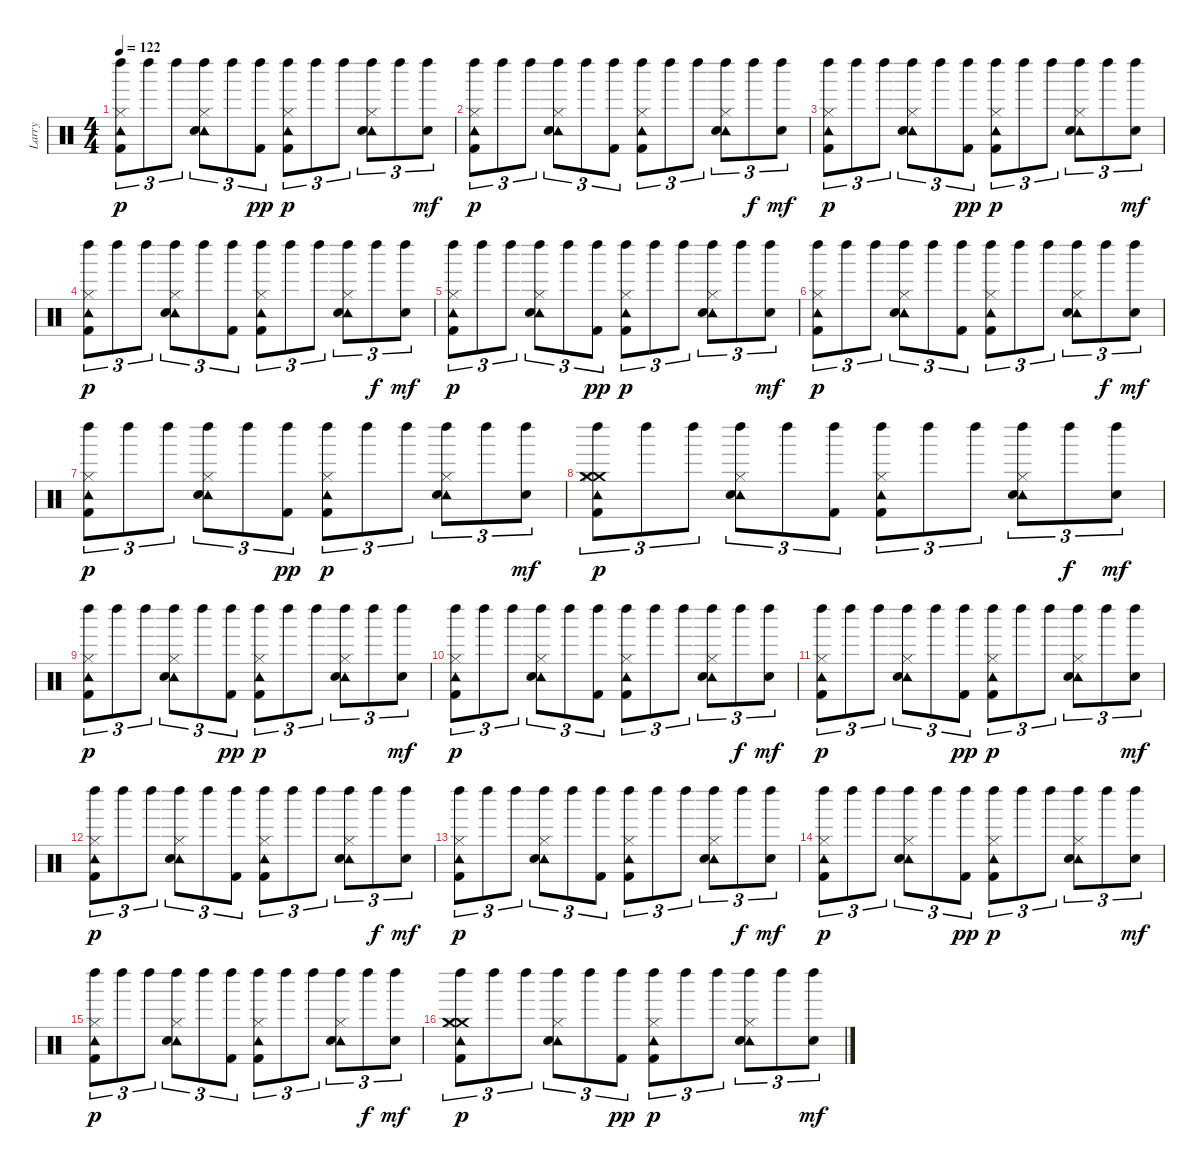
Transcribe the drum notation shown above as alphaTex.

\track ("Larry" "Larry") {instrument percussion}
\staff {score}
\articulation defaults
\ts (4 4)
\tempo 122
\clef neutral
\ks c
("Left Maraca (hit)" "Tambourine (hit)" "Hi-Hat (closed)" "Kick (hit) 2").8{tu (3 2) dy p} "Left Maraca (hit)".8{tu (3 2)} "Left Maraca (hit)".8{tu (3 2)} ("Left Maraca (hit)" "Tambourine (hit)" "Hi-Hat (closed)" "Snare (hit) 2").8{tu (3 2)} "Left Maraca (hit)".8{tu (3 2)} ("Left Maraca (hit)" "Kick (hit) 2").8{tu (3 2) dy pp} ("Left Maraca (hit)" "Tambourine (hit)" "Hi-Hat (closed)" "Kick (hit) 2").8{tu (3 2) dy p} "Left Maraca (hit)".8{tu (3 2)} "Left Maraca (hit)".8{tu (3 2)} ("Left Maraca (hit)" "Tambourine (hit)" "Hi-Hat (closed)" "Snare (hit) 2").8{tu (3 2)} "Left Maraca (hit)".8{tu (3 2)} ("Left Maraca (hit)" "Snare (hit) 2").8{tu (3 2) dy mf} |
("Left Maraca (hit)" "Tambourine (hit)" "Hi-Hat (closed)" "Kick (hit) 2").8{tu (3 2) dy p} "Left Maraca (hit)".8{tu (3 2)} "Left Maraca (hit)".8{tu (3 2)} ("Left Maraca (hit)" "Tambourine (hit)" "Hi-Hat (closed)" "Snare (hit) 2").8{tu (3 2)} "Left Maraca (hit)".8{tu (3 2)} ("Left Maraca (hit)" "Kick (hit) 2").8{tu (3 2)} ("Left Maraca (hit)" "Tambourine (hit)" "Hi-Hat (closed)" "Kick (hit) 2").8{tu (3 2)} "Left Maraca (hit)".8{tu (3 2)} "Left Maraca (hit)".8{tu (3 2)} ("Left Maraca (hit)" "Tambourine (hit)" "Hi-Hat (closed)" "Snare (hit) 2").8{tu (3 2)} "Left Maraca (hit)".8{tu (3 2) dy f} ("Left Maraca (hit)" "Snare (hit) 2").8{tu (3 2) dy mf} |
("Left Maraca (hit)" "Tambourine (hit)" "Hi-Hat (closed)" "Kick (hit) 2").8{tu (3 2) dy p} "Left Maraca (hit)".8{tu (3 2)} "Left Maraca (hit)".8{tu (3 2)} ("Left Maraca (hit)" "Tambourine (hit)" "Hi-Hat (closed)" "Snare (hit) 2").8{tu (3 2)} "Left Maraca (hit)".8{tu (3 2)} ("Left Maraca (hit)" "Kick (hit) 2").8{tu (3 2) dy pp} ("Left Maraca (hit)" "Tambourine (hit)" "Hi-Hat (closed)" "Kick (hit) 2").8{tu (3 2) dy p} "Left Maraca (hit)".8{tu (3 2)} "Left Maraca (hit)".8{tu (3 2)} ("Left Maraca (hit)" "Tambourine (hit)" "Hi-Hat (closed)" "Snare (hit) 2").8{tu (3 2)} "Left Maraca (hit)".8{tu (3 2)} ("Left Maraca (hit)" "Snare (hit) 2").8{tu (3 2) dy mf} |
("Left Maraca (hit)" "Tambourine (hit)" "Hi-Hat (closed)" "Kick (hit) 2").8{tu (3 2) dy p} "Left Maraca (hit)".8{tu (3 2)} "Left Maraca (hit)".8{tu (3 2)} ("Left Maraca (hit)" "Tambourine (hit)" "Hi-Hat (closed)" "Snare (hit) 2").8{tu (3 2)} "Left Maraca (hit)".8{tu (3 2)} ("Left Maraca (hit)" "Kick (hit) 2").8{tu (3 2)} ("Left Maraca (hit)" "Tambourine (hit)" "Hi-Hat (closed)" "Kick (hit) 2").8{tu (3 2)} "Left Maraca (hit)".8{tu (3 2)} "Left Maraca (hit)".8{tu (3 2)} ("Left Maraca (hit)" "Tambourine (hit)" "Hi-Hat (closed)" "Snare (hit) 2").8{tu (3 2)} "Left Maraca (hit)".8{tu (3 2) dy f} ("Left Maraca (hit)" "Snare (hit) 2").8{tu (3 2) dy mf} |
("Left Maraca (hit)" "Tambourine (hit)" "Hi-Hat (closed)" "Kick (hit) 2").8{tu (3 2) dy p} "Left Maraca (hit)".8{tu (3 2)} "Left Maraca (hit)".8{tu (3 2)} ("Left Maraca (hit)" "Tambourine (hit)" "Hi-Hat (closed)" "Snare (hit) 2").8{tu (3 2)} "Left Maraca (hit)".8{tu (3 2)} ("Left Maraca (hit)" "Kick (hit) 2").8{tu (3 2) dy pp} ("Left Maraca (hit)" "Tambourine (hit)" "Hi-Hat (closed)" "Kick (hit) 2").8{tu (3 2) dy p} "Left Maraca (hit)".8{tu (3 2)} "Left Maraca (hit)".8{tu (3 2)} ("Left Maraca (hit)" "Tambourine (hit)" "Hi-Hat (closed)" "Snare (hit) 2").8{tu (3 2)} "Left Maraca (hit)".8{tu (3 2)} ("Left Maraca (hit)" "Snare (hit) 2").8{tu (3 2) dy mf} |
("Left Maraca (hit)" "Tambourine (hit)" "Hi-Hat (closed)" "Kick (hit) 2").8{tu (3 2) dy p} "Left Maraca (hit)".8{tu (3 2)} "Left Maraca (hit)".8{tu (3 2)} ("Left Maraca (hit)" "Tambourine (hit)" "Hi-Hat (closed)" "Snare (hit) 2").8{tu (3 2)} "Left Maraca (hit)".8{tu (3 2)} ("Left Maraca (hit)" "Kick (hit) 2").8{tu (3 2)} ("Left Maraca (hit)" "Tambourine (hit)" "Hi-Hat (closed)" "Kick (hit) 2").8{tu (3 2)} "Left Maraca (hit)".8{tu (3 2)} "Left Maraca (hit)".8{tu (3 2)} ("Left Maraca (hit)" "Tambourine (hit)" "Hi-Hat (closed)" "Snare (hit) 2").8{tu (3 2)} "Left Maraca (hit)".8{tu (3 2) dy f} ("Left Maraca (hit)" "Snare (hit) 2").8{tu (3 2) dy mf} |
("Left Maraca (hit)" "Tambourine (hit)" "Hi-Hat (closed)" "Kick (hit) 2").8{tu (3 2) dy p} "Left Maraca (hit)".8{tu (3 2)} "Left Maraca (hit)".8{tu (3 2)} ("Left Maraca (hit)" "Tambourine (hit)" "Hi-Hat (closed)" "Snare (hit) 2").8{tu (3 2)} "Left Maraca (hit)".8{tu (3 2)} ("Left Maraca (hit)" "Kick (hit) 2").8{tu (3 2) dy pp} ("Left Maraca (hit)" "Tambourine (hit)" "Hi-Hat (closed)" "Kick (hit) 2").8{tu (3 2) dy p} "Left Maraca (hit)".8{tu (3 2)} "Left Maraca (hit)".8{tu (3 2)} ("Left Maraca (hit)" "Tambourine (hit)" "Hi-Hat (closed)" "Snare (hit) 2").8{tu (3 2)} "Left Maraca (hit)".8{tu (3 2)} ("Left Maraca (hit)" "Snare (hit) 2").8{tu (3 2) dy mf} |
("Left Maraca (hit)" "Crash medium (hit)" "Tambourine (hit)" "Hi-Hat (closed)" "Crash medium (hit)" "Kick (hit) 2").8{tu (3 2) dy p} "Left Maraca (hit)".8{tu (3 2)} "Left Maraca (hit)".8{tu (3 2)} ("Left Maraca (hit)" "Tambourine (hit)" "Hi-Hat (closed)" "Snare (hit) 2").8{tu (3 2)} "Left Maraca (hit)".8{tu (3 2)} ("Left Maraca (hit)" "Kick (hit) 2").8{tu (3 2)} ("Left Maraca (hit)" "Tambourine (hit)" "Hi-Hat (closed)" "Kick (hit) 2").8{tu (3 2)} "Left Maraca (hit)".8{tu (3 2)} "Left Maraca (hit)".8{tu (3 2)} ("Left Maraca (hit)" "Tambourine (hit)" "Hi-Hat (closed)" "Snare (hit) 2").8{tu (3 2)} "Left Maraca (hit)".8{tu (3 2) dy f} ("Left Maraca (hit)" "Snare (hit) 2").8{tu (3 2) dy mf} |
("Left Maraca (hit)" "Tambourine (hit)" "Hi-Hat (closed)" "Kick (hit) 2").8{tu (3 2) dy p} "Left Maraca (hit)".8{tu (3 2)} "Left Maraca (hit)".8{tu (3 2)} ("Left Maraca (hit)" "Tambourine (hit)" "Hi-Hat (closed)" "Snare (hit) 2").8{tu (3 2)} "Left Maraca (hit)".8{tu (3 2)} ("Left Maraca (hit)" "Kick (hit) 2").8{tu (3 2) dy pp} ("Left Maraca (hit)" "Tambourine (hit)" "Hi-Hat (closed)" "Kick (hit) 2").8{tu (3 2) dy p} "Left Maraca (hit)".8{tu (3 2)} "Left Maraca (hit)".8{tu (3 2)} ("Left Maraca (hit)" "Tambourine (hit)" "Hi-Hat (closed)" "Snare (hit) 2").8{tu (3 2)} "Left Maraca (hit)".8{tu (3 2)} ("Left Maraca (hit)" "Snare (hit) 2").8{tu (3 2) dy mf} |
("Left Maraca (hit)" "Tambourine (hit)" "Hi-Hat (closed)" "Kick (hit) 2").8{tu (3 2) dy p} "Left Maraca (hit)".8{tu (3 2)} "Left Maraca (hit)".8{tu (3 2)} ("Left Maraca (hit)" "Tambourine (hit)" "Hi-Hat (closed)" "Snare (hit) 2").8{tu (3 2)} "Left Maraca (hit)".8{tu (3 2)} ("Left Maraca (hit)" "Kick (hit) 2").8{tu (3 2)} ("Left Maraca (hit)" "Tambourine (hit)" "Hi-Hat (closed)" "Kick (hit) 2").8{tu (3 2)} "Left Maraca (hit)".8{tu (3 2)} "Left Maraca (hit)".8{tu (3 2)} ("Left Maraca (hit)" "Tambourine (hit)" "Hi-Hat (closed)" "Snare (hit) 2").8{tu (3 2)} "Left Maraca (hit)".8{tu (3 2) dy f} ("Left Maraca (hit)" "Snare (hit) 2").8{tu (3 2) dy mf} |
("Left Maraca (hit)" "Tambourine (hit)" "Hi-Hat (closed)" "Kick (hit) 2").8{tu (3 2) dy p} "Left Maraca (hit)".8{tu (3 2)} "Left Maraca (hit)".8{tu (3 2)} ("Left Maraca (hit)" "Tambourine (hit)" "Hi-Hat (closed)" "Snare (hit) 2").8{tu (3 2)} "Left Maraca (hit)".8{tu (3 2)} ("Left Maraca (hit)" "Kick (hit) 2").8{tu (3 2) dy pp} ("Left Maraca (hit)" "Tambourine (hit)" "Hi-Hat (closed)" "Kick (hit) 2").8{tu (3 2) dy p} "Left Maraca (hit)".8{tu (3 2)} "Left Maraca (hit)".8{tu (3 2)} ("Left Maraca (hit)" "Tambourine (hit)" "Hi-Hat (closed)" "Snare (hit) 2").8{tu (3 2)} "Left Maraca (hit)".8{tu (3 2)} ("Left Maraca (hit)" "Snare (hit) 2").8{tu (3 2) dy mf} |
("Left Maraca (hit)" "Tambourine (hit)" "Hi-Hat (closed)" "Kick (hit) 2").8{tu (3 2) dy p} "Left Maraca (hit)".8{tu (3 2)} "Left Maraca (hit)".8{tu (3 2)} ("Left Maraca (hit)" "Tambourine (hit)" "Hi-Hat (closed)" "Snare (hit) 2").8{tu (3 2)} "Left Maraca (hit)".8{tu (3 2)} ("Left Maraca (hit)" "Kick (hit) 2").8{tu (3 2)} ("Left Maraca (hit)" "Tambourine (hit)" "Hi-Hat (closed)" "Kick (hit) 2").8{tu (3 2)} "Left Maraca (hit)".8{tu (3 2)} "Left Maraca (hit)".8{tu (3 2)} ("Left Maraca (hit)" "Tambourine (hit)" "Hi-Hat (closed)" "Snare (hit) 2").8{tu (3 2)} "Left Maraca (hit)".8{tu (3 2) dy f} ("Left Maraca (hit)" "Snare (hit) 2").8{tu (3 2) dy mf} |
("Left Maraca (hit)" "Tambourine (hit)" "Hi-Hat (closed)" "Kick (hit) 2").8{tu (3 2) dy p} "Left Maraca (hit)".8{tu (3 2)} "Left Maraca (hit)".8{tu (3 2)} ("Left Maraca (hit)" "Tambourine (hit)" "Hi-Hat (closed)" "Snare (hit) 2").8{tu (3 2)} "Left Maraca (hit)".8{tu (3 2)} ("Left Maraca (hit)" "Kick (hit) 2").8{tu (3 2)} ("Left Maraca (hit)" "Tambourine (hit)" "Hi-Hat (closed)" "Kick (hit) 2").8{tu (3 2)} "Left Maraca (hit)".8{tu (3 2)} "Left Maraca (hit)".8{tu (3 2)} ("Left Maraca (hit)" "Tambourine (hit)" "Hi-Hat (closed)" "Snare (hit) 2").8{tu (3 2)} "Left Maraca (hit)".8{tu (3 2) dy f} ("Left Maraca (hit)" "Snare (hit) 2").8{tu (3 2) dy mf} |
("Left Maraca (hit)" "Tambourine (hit)" "Hi-Hat (closed)" "Kick (hit) 2").8{tu (3 2) dy p} "Left Maraca (hit)".8{tu (3 2)} "Left Maraca (hit)".8{tu (3 2)} ("Left Maraca (hit)" "Tambourine (hit)" "Hi-Hat (closed)" "Snare (hit) 2").8{tu (3 2)} "Left Maraca (hit)".8{tu (3 2)} ("Left Maraca (hit)" "Kick (hit) 2").8{tu (3 2) dy pp} ("Left Maraca (hit)" "Tambourine (hit)" "Hi-Hat (closed)" "Kick (hit) 2").8{tu (3 2) dy p} "Left Maraca (hit)".8{tu (3 2)} "Left Maraca (hit)".8{tu (3 2)} ("Left Maraca (hit)" "Tambourine (hit)" "Hi-Hat (closed)" "Snare (hit) 2").8{tu (3 2)} "Left Maraca (hit)".8{tu (3 2)} ("Left Maraca (hit)" "Snare (hit) 2").8{tu (3 2) dy mf} |
("Left Maraca (hit)" "Tambourine (hit)" "Hi-Hat (closed)" "Kick (hit) 2").8{tu (3 2) dy p} "Left Maraca (hit)".8{tu (3 2)} "Left Maraca (hit)".8{tu (3 2)} ("Left Maraca (hit)" "Tambourine (hit)" "Hi-Hat (closed)" "Snare (hit) 2").8{tu (3 2)} "Left Maraca (hit)".8{tu (3 2)} ("Left Maraca (hit)" "Kick (hit) 2").8{tu (3 2)} ("Left Maraca (hit)" "Tambourine (hit)" "Hi-Hat (closed)" "Kick (hit) 2").8{tu (3 2)} "Left Maraca (hit)".8{tu (3 2)} "Left Maraca (hit)".8{tu (3 2)} ("Left Maraca (hit)" "Tambourine (hit)" "Hi-Hat (closed)" "Snare (hit) 2").8{tu (3 2)} "Left Maraca (hit)".8{tu (3 2) dy f} ("Left Maraca (hit)" "Snare (hit) 2").8{tu (3 2) dy mf} |
("Left Maraca (hit)" "Crash medium (hit)" "Tambourine (hit)" "Hi-Hat (closed)" "Crash medium (hit)" "Kick (hit) 2").8{tu (3 2) dy p} "Left Maraca (hit)".8{tu (3 2)} "Left Maraca (hit)".8{tu (3 2)} ("Left Maraca (hit)" "Tambourine (hit)" "Hi-Hat (closed)" "Snare (hit) 2").8{tu (3 2)} "Left Maraca (hit)".8{tu (3 2)} ("Left Maraca (hit)" "Kick (hit) 2").8{tu (3 2) dy pp} ("Left Maraca (hit)" "Tambourine (hit)" "Hi-Hat (closed)" "Kick (hit) 2").8{tu (3 2) dy p} "Left Maraca (hit)".8{tu (3 2)} "Left Maraca (hit)".8{tu (3 2)} ("Left Maraca (hit)" "Tambourine (hit)" "Hi-Hat (closed)" "Snare (hit) 2").8{tu (3 2)} "Left Maraca (hit)".8{tu (3 2)} ("Left Maraca (hit)" "Snare (hit) 2").8{tu (3 2) dy mf}
